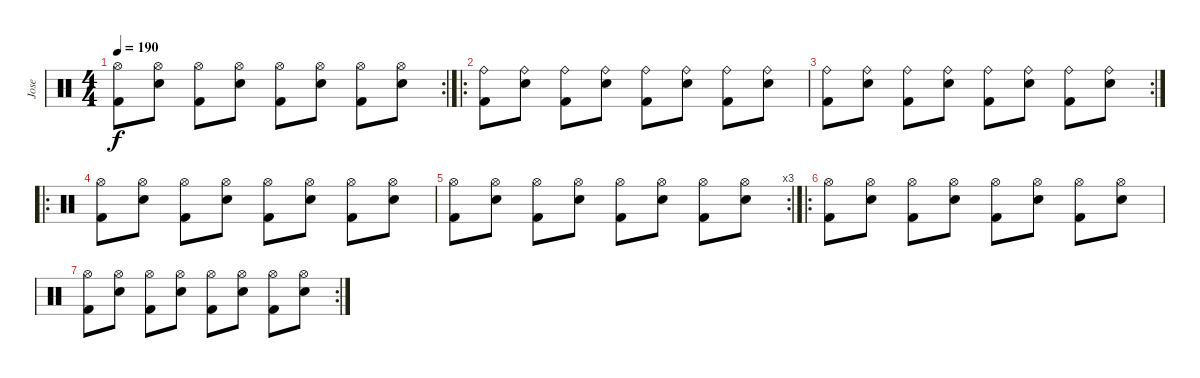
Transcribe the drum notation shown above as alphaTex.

\track ("Jose" "Jose") {instrument percussion}
\staff {score}
\articulation defaults
\rc 2
\ts (4 4)
\tempo 190
\clef neutral
\ks c
("Hi-Hat (open)" "Kick (hit) 2").8{dy f} ("Hi-Hat (open)" "Electric Snare (hit)").8 ("Hi-Hat (open)" "Kick (hit) 2").8 ("Hi-Hat (open)" "Electric Snare (hit)").8 ("Hi-Hat (open)" "Kick (hit) 2").8 ("Hi-Hat (open)" "Electric Snare (hit)").8 ("Hi-Hat (open)" "Kick (hit) 2").8 ("Hi-Hat (open)" "Electric Snare (hit)").8 |
\ro
("Ride (bell)" "Kick (hit) 2").8 ("Ride (bell)" "Electric Snare (hit)").8 ("Ride (bell)" "Kick (hit) 2").8 ("Ride (bell)" "Electric Snare (hit)").8 ("Ride (bell)" "Kick (hit) 2").8 ("Ride (bell)" "Electric Snare (hit)").8 ("Ride (bell)" "Kick (hit) 2").8 ("Ride (bell)" "Electric Snare (hit)").8 |
\rc 2
("Ride (bell)" "Kick (hit) 2").8 ("Ride (bell)" "Electric Snare (hit)").8 ("Ride (bell)" "Kick (hit) 2").8 ("Ride (bell)" "Electric Snare (hit)").8 ("Ride (bell)" "Kick (hit) 2").8 ("Ride (bell)" "Electric Snare (hit)").8 ("Ride (bell)" "Kick (hit) 2").8 ("Ride (bell)" "Electric Snare (hit)").8 |
\ro
("Hi-Hat (open)" "Kick (hit) 2").8 ("Hi-Hat (open)" "Electric Snare (hit)").8 ("Hi-Hat (open)" "Kick (hit) 2").8 ("Hi-Hat (open)" "Electric Snare (hit)").8 ("Hi-Hat (open)" "Kick (hit) 2").8 ("Hi-Hat (open)" "Electric Snare (hit)").8 ("Hi-Hat (open)" "Kick (hit) 2").8 ("Hi-Hat (open)" "Electric Snare (hit)").8 |
\rc 3
("Hi-Hat (open)" "Kick (hit) 2").8 ("Hi-Hat (open)" "Electric Snare (hit)").8 ("Hi-Hat (open)" "Kick (hit) 2").8 ("Hi-Hat (open)" "Electric Snare (hit)").8 ("Hi-Hat (open)" "Kick (hit) 2").8 ("Hi-Hat (open)" "Electric Snare (hit)").8 ("Hi-Hat (open)" "Kick (hit) 2").8 ("Hi-Hat (open)" "Electric Snare (hit)").8 |
\ro
("Hi-Hat (open)" "Kick (hit) 2").8 ("Hi-Hat (open)" "Electric Snare (hit)").8 ("Hi-Hat (open)" "Kick (hit) 2").8 ("Hi-Hat (open)" "Electric Snare (hit)").8 ("Hi-Hat (open)" "Kick (hit) 2").8 ("Hi-Hat (open)" "Electric Snare (hit)").8 ("Hi-Hat (open)" "Kick (hit) 2").8 ("Hi-Hat (open)" "Electric Snare (hit)").8 |
\rc 2
("Hi-Hat (open)" "Kick (hit) 2").8 ("Hi-Hat (open)" "Electric Snare (hit)").8 ("Hi-Hat (open)" "Kick (hit) 2").8 ("Hi-Hat (open)" "Electric Snare (hit)").8 ("Hi-Hat (open)" "Kick (hit) 2").8 ("Hi-Hat (open)" "Electric Snare (hit)").8 ("Hi-Hat (open)" "Kick (hit) 2").8 ("Hi-Hat (open)" "Electric Snare (hit)").8
